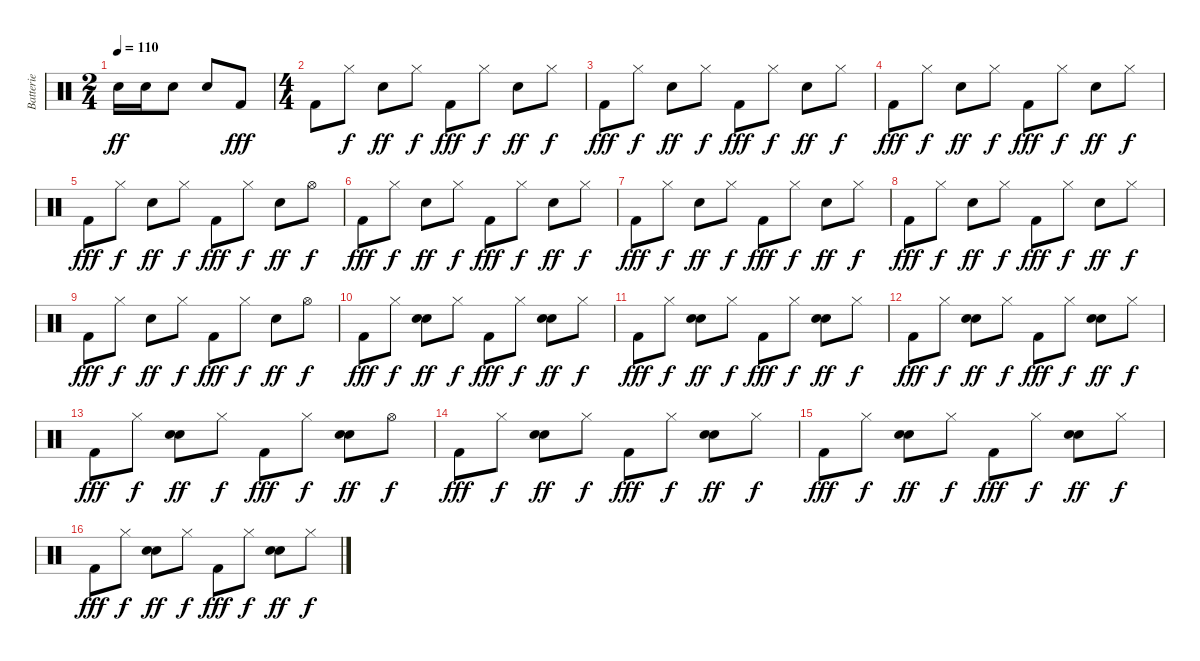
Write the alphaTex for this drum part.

\track ("Batterie" "Batterie") {instrument percussion}
\staff {score}
\articulation defaults
\ts (2 4)
\tempo 110
\clef neutral
\ks c "Snare (hit) 2".16{dy ff} "Snare (hit) 2".16 "Snare (hit) 2".8 "Snare (hit) 2".8 "Kick (hit) 2".8{dy fff}
|
\ts (4 4)
"Kick (hit) 2".8 "Hi-Hat (closed)".8{dy f} "Snare (hit) 2".8{dy ff} "Hi-Hat (closed)".8{dy f} "Kick (hit) 2".8{dy fff} "Hi-Hat (closed)".8{dy f} "Snare (hit) 2".8{dy ff} "Hi-Hat (closed)".8{dy f} |
"Kick (hit) 2".8{dy fff} "Hi-Hat (closed)".8{dy f} "Snare (hit) 2".8{dy ff} "Hi-Hat (closed)".8{dy f} "Kick (hit) 2".8{dy fff} "Hi-Hat (closed)".8{dy f} "Snare (hit) 2".8{dy ff} "Hi-Hat (closed)".8{dy f} |
"Kick (hit) 2".8{dy fff} "Hi-Hat (closed)".8{dy f} "Snare (hit) 2".8{dy ff} "Hi-Hat (closed)".8{dy f} "Kick (hit) 2".8{dy fff} "Hi-Hat (closed)".8{dy f} "Snare (hit) 2".8{dy ff} "Hi-Hat (closed)".8{dy f} |
"Kick (hit) 2".8{dy fff} "Hi-Hat (closed)".8{dy f} "Snare (hit) 2".8{dy ff} "Hi-Hat (closed)".8{dy f} "Kick (hit) 2".8{dy fff} "Hi-Hat (closed)".8{dy f} "Snare (hit) 2".8{dy ff} "Hi-Hat (open)".8{dy f} |
"Kick (hit) 2".8{dy fff} "Hi-Hat (closed)".8{dy f} "Snare (hit) 2".8{dy ff} "Hi-Hat (closed)".8{dy f} "Kick (hit) 2".8{dy fff} "Hi-Hat (closed)".8{dy f} "Snare (hit) 2".8{dy ff} "Hi-Hat (closed)".8{dy f} |
"Kick (hit) 2".8{dy fff} "Hi-Hat (closed)".8{dy f} "Snare (hit) 2".8{dy ff} "Hi-Hat (closed)".8{dy f} "Kick (hit) 2".8{dy fff} "Hi-Hat (closed)".8{dy f} "Snare (hit) 2".8{dy ff} "Hi-Hat (closed)".8{dy f} |
"Kick (hit) 2".8{dy fff} "Hi-Hat (closed)".8{dy f} "Snare (hit) 2".8{dy ff} "Hi-Hat (closed)".8{dy f} "Kick (hit) 2".8{dy fff} "Hi-Hat (closed)".8{dy f} "Snare (hit) 2".8{dy ff} "Hi-Hat (closed)".8{dy f} |
"Kick (hit) 2".8{dy fff} "Hi-Hat (closed)".8{dy f} "Snare (hit) 2".8{dy ff} "Hi-Hat (closed)".8{dy f} "Kick (hit) 2".8{dy fff} "Hi-Hat (closed)".8{dy f} "Snare (hit) 2".8{dy ff} "Hi-Hat (open)".8{dy f} |
"Kick (hit) 2".8{dy fff} "Hi-Hat (closed)".8{dy f} ("Snare (hit) 2" "Hand Clap (hit)").8{dy ff} "Hi-Hat (closed)".8{dy f} "Kick (hit) 2".8{dy fff} "Hi-Hat (closed)".8{dy f} ("Snare (hit) 2" "Hand Clap (hit)").8{dy ff} "Hi-Hat (closed)".8{dy f} |
"Kick (hit) 2".8{dy fff} "Hi-Hat (closed)".8{dy f} ("Snare (hit) 2" "Hand Clap (hit)").8{dy ff} "Hi-Hat (closed)".8{dy f} "Kick (hit) 2".8{dy fff} "Hi-Hat (closed)".8{dy f} ("Snare (hit) 2" "Hand Clap (hit)").8{dy ff} "Hi-Hat (closed)".8{dy f} |
"Kick (hit) 2".8{dy fff} "Hi-Hat (closed)".8{dy f} ("Snare (hit) 2" "Hand Clap (hit)").8{dy ff} "Hi-Hat (closed)".8{dy f} "Kick (hit) 2".8{dy fff} "Hi-Hat (closed)".8{dy f} ("Snare (hit) 2" "Hand Clap (hit)").8{dy ff} "Hi-Hat (closed)".8{dy f} |
"Kick (hit) 2".8{dy fff} "Hi-Hat (closed)".8{dy f} ("Snare (hit) 2" "Hand Clap (hit)").8{dy ff} "Hi-Hat (closed)".8{dy f} "Kick (hit) 2".8{dy fff} "Hi-Hat (closed)".8{dy f} ("Snare (hit) 2" "Hand Clap (hit)").8{dy ff} "Hi-Hat (open)".8{dy f} |
"Kick (hit) 2".8{dy fff} "Hi-Hat (closed)".8{dy f} ("Snare (hit) 2" "Hand Clap (hit)").8{dy ff} "Hi-Hat (closed)".8{dy f} "Kick (hit) 2".8{dy fff} "Hi-Hat (closed)".8{dy f} ("Snare (hit) 2" "Hand Clap (hit)").8{dy ff} "Hi-Hat (closed)".8{dy f} |
"Kick (hit) 2".8{dy fff} "Hi-Hat (closed)".8{dy f} ("Snare (hit) 2" "Hand Clap (hit)").8{dy ff} "Hi-Hat (closed)".8{dy f} "Kick (hit) 2".8{dy fff} "Hi-Hat (closed)".8{dy f} ("Snare (hit) 2" "Hand Clap (hit)").8{dy ff} "Hi-Hat (closed)".8{dy f} |
"Kick (hit) 2".8{dy fff} "Hi-Hat (closed)".8{dy f} ("Snare (hit) 2" "Hand Clap (hit)").8{dy ff} "Hi-Hat (closed)".8{dy f} "Kick (hit) 2".8{dy fff} "Hi-Hat (closed)".8{dy f} ("Snare (hit) 2" "Hand Clap (hit)").8{dy ff} "Hi-Hat (closed)".8{dy f}
